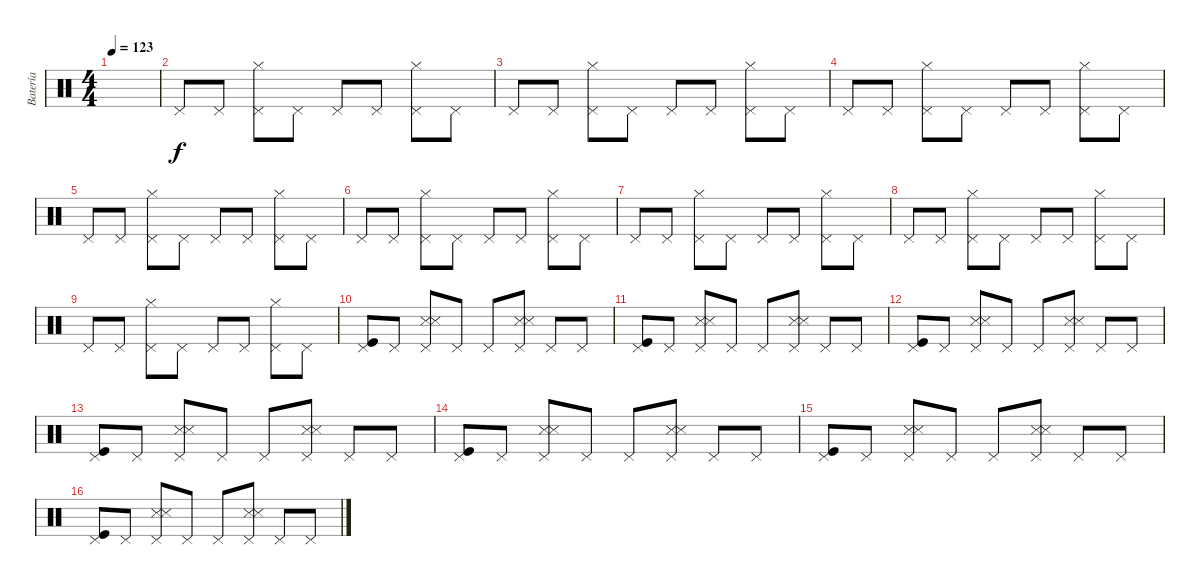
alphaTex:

\track ("Batería" "Batería") {instrument percussion}
\staff {score}
\articulation defaults
\ts (4 4)
\tempo 123
\clef neutral
\ks c
|
"Pedal Hi-Hat (hit)".8 "Pedal Hi-Hat (hit)".8 ("Pedal Hi-Hat (hit)" "Hi-Hat (closed)").8 "Pedal Hi-Hat (hit)".8 "Pedal Hi-Hat (hit)".8 "Pedal Hi-Hat (hit)".8 ("Pedal Hi-Hat (hit)" "Hi-Hat (closed)").8 "Pedal Hi-Hat (hit)".8 |
"Pedal Hi-Hat (hit)".8 "Pedal Hi-Hat (hit)".8 ("Pedal Hi-Hat (hit)" "Hi-Hat (closed)").8 "Pedal Hi-Hat (hit)".8 "Pedal Hi-Hat (hit)".8 "Pedal Hi-Hat (hit)".8 ("Pedal Hi-Hat (hit)" "Hi-Hat (closed)").8 "Pedal Hi-Hat (hit)".8 |
"Pedal Hi-Hat (hit)".8 "Pedal Hi-Hat (hit)".8 ("Pedal Hi-Hat (hit)" "Hi-Hat (closed)").8 "Pedal Hi-Hat (hit)".8 "Pedal Hi-Hat (hit)".8 "Pedal Hi-Hat (hit)".8 ("Pedal Hi-Hat (hit)" "Hi-Hat (closed)").8 "Pedal Hi-Hat (hit)".8 |
"Pedal Hi-Hat (hit)".8 "Pedal Hi-Hat (hit)".8 ("Pedal Hi-Hat (hit)" "Hi-Hat (closed)").8 "Pedal Hi-Hat (hit)".8 "Pedal Hi-Hat (hit)".8 "Pedal Hi-Hat (hit)".8 ("Pedal Hi-Hat (hit)" "Hi-Hat (closed)").8 "Pedal Hi-Hat (hit)".8 |
"Pedal Hi-Hat (hit)".8 "Pedal Hi-Hat (hit)".8 ("Pedal Hi-Hat (hit)" "Hi-Hat (closed)").8 "Pedal Hi-Hat (hit)".8 "Pedal Hi-Hat (hit)".8 "Pedal Hi-Hat (hit)".8 ("Pedal Hi-Hat (hit)" "Hi-Hat (closed)").8 "Pedal Hi-Hat (hit)".8 |
"Pedal Hi-Hat (hit)".8 "Pedal Hi-Hat (hit)".8 ("Pedal Hi-Hat (hit)" "Hi-Hat (closed)").8 "Pedal Hi-Hat (hit)".8 "Pedal Hi-Hat (hit)".8 "Pedal Hi-Hat (hit)".8 ("Pedal Hi-Hat (hit)" "Hi-Hat (closed)").8 "Pedal Hi-Hat (hit)".8 |
"Pedal Hi-Hat (hit)".8 "Pedal Hi-Hat (hit)".8 ("Pedal Hi-Hat (hit)" "Hi-Hat (closed)").8 "Pedal Hi-Hat (hit)".8 "Pedal Hi-Hat (hit)".8 "Pedal Hi-Hat (hit)".8 ("Pedal Hi-Hat (hit)" "Hi-Hat (closed)").8 "Pedal Hi-Hat (hit)".8 |
"Pedal Hi-Hat (hit)".8 "Pedal Hi-Hat (hit)".8 ("Pedal Hi-Hat (hit)" "Hi-Hat (closed)").8 "Pedal Hi-Hat (hit)".8 "Pedal Hi-Hat (hit)".8 "Pedal Hi-Hat (hit)".8 ("Pedal Hi-Hat (hit)" "Hi-Hat (closed)").8 "Pedal Hi-Hat (hit)".8 |
("Pedal Hi-Hat (hit)" "Kick (hit)").8 "Pedal Hi-Hat (hit)".8 ("Pedal Hi-Hat (hit)" "Snare (side stick) 3" "Snare (side stick) 3").8 "Pedal Hi-Hat (hit)".8 "Pedal Hi-Hat (hit)".8 ("Pedal Hi-Hat (hit)" "Snare (side stick) 3" "Snare (side stick) 3").8 "Pedal Hi-Hat (hit)".8 "Pedal Hi-Hat (hit)".8 |
("Pedal Hi-Hat (hit)" "Kick (hit)").8 "Pedal Hi-Hat (hit)".8 ("Pedal Hi-Hat (hit)" "Snare (side stick) 3" "Snare (side stick) 3").8 "Pedal Hi-Hat (hit)".8 "Pedal Hi-Hat (hit)".8 ("Pedal Hi-Hat (hit)" "Snare (side stick) 3" "Snare (side stick) 3").8 "Pedal Hi-Hat (hit)".8 "Pedal Hi-Hat (hit)".8 |
("Pedal Hi-Hat (hit)" "Kick (hit)").8 "Pedal Hi-Hat (hit)".8 ("Pedal Hi-Hat (hit)" "Snare (side stick) 3" "Snare (side stick) 3").8 "Pedal Hi-Hat (hit)".8 "Pedal Hi-Hat (hit)".8 ("Pedal Hi-Hat (hit)" "Snare (side stick) 3" "Snare (side stick) 3").8 "Pedal Hi-Hat (hit)".8 "Pedal Hi-Hat (hit)".8 |
("Pedal Hi-Hat (hit)" "Kick (hit)").8 "Pedal Hi-Hat (hit)".8 ("Pedal Hi-Hat (hit)" "Snare (side stick) 3" "Snare (side stick) 3").8 "Pedal Hi-Hat (hit)".8 "Pedal Hi-Hat (hit)".8 ("Pedal Hi-Hat (hit)" "Snare (side stick) 3" "Snare (side stick) 3").8 "Pedal Hi-Hat (hit)".8 "Pedal Hi-Hat (hit)".8 |
("Pedal Hi-Hat (hit)" "Kick (hit)").8 "Pedal Hi-Hat (hit)".8 ("Pedal Hi-Hat (hit)" "Snare (side stick) 3" "Snare (side stick) 3").8 "Pedal Hi-Hat (hit)".8 "Pedal Hi-Hat (hit)".8 ("Pedal Hi-Hat (hit)" "Snare (side stick) 3" "Snare (side stick) 3").8 "Pedal Hi-Hat (hit)".8 "Pedal Hi-Hat (hit)".8 |
("Pedal Hi-Hat (hit)" "Kick (hit)").8 "Pedal Hi-Hat (hit)".8 ("Pedal Hi-Hat (hit)" "Snare (side stick) 3" "Snare (side stick) 3").8 "Pedal Hi-Hat (hit)".8 "Pedal Hi-Hat (hit)".8 ("Pedal Hi-Hat (hit)" "Snare (side stick) 3" "Snare (side stick) 3").8 "Pedal Hi-Hat (hit)".8 "Pedal Hi-Hat (hit)".8 |
("Pedal Hi-Hat (hit)" "Kick (hit)").8 "Pedal Hi-Hat (hit)".8 ("Pedal Hi-Hat (hit)" "Snare (side stick) 3" "Snare (side stick) 3").8 "Pedal Hi-Hat (hit)".8 "Pedal Hi-Hat (hit)".8 ("Pedal Hi-Hat (hit)" "Snare (side stick) 3" "Snare (side stick) 3").8 "Pedal Hi-Hat (hit)".8 "Pedal Hi-Hat (hit)".8
